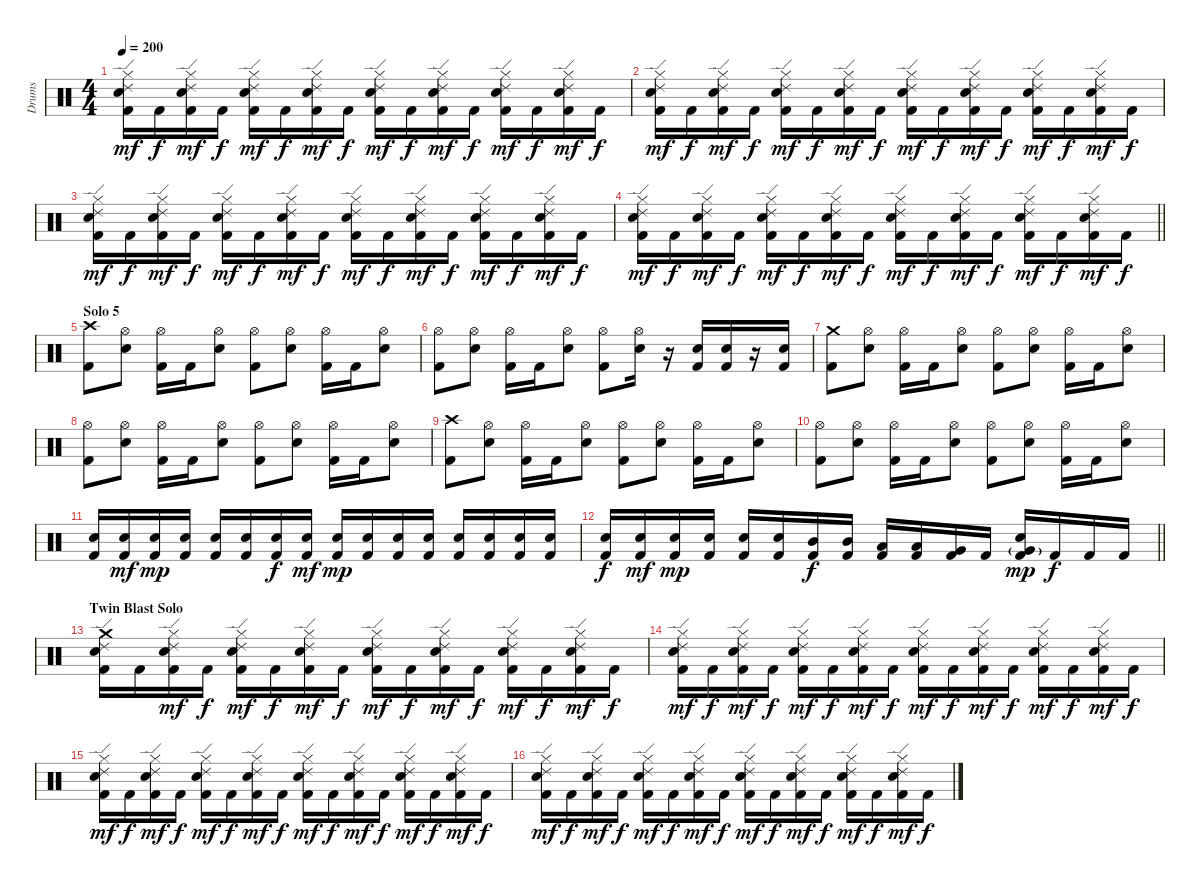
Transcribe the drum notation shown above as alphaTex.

\track ("Drums" "Drums") {instrument percussion}
\staff {score}
\articulation defaults
\ts (4 4)
\tempo 200
\clef neutral
\ks c
("Hi-Hat (closed)" "Ride (edge) 2" "Snare (hit) 2" "Kick (hit) 2").16{dy mf} "Kick (hit) 2".16{dy f} ("Hi-Hat (closed)" "Ride (edge) 2" "Snare (hit) 2" "Kick (hit) 2").16{dy mf} "Kick (hit) 2".16{dy f} ("Hi-Hat (closed)" "Ride (edge) 2" "Snare (hit) 2" "Kick (hit) 2").16{dy mf} "Kick (hit) 2".16{dy f} ("Hi-Hat (closed)" "Ride (edge) 2" "Snare (hit) 2" "Kick (hit) 2").16{dy mf} "Kick (hit) 2".16{dy f} ("Hi-Hat (closed)" "Ride (edge) 2" "Snare (hit) 2" "Kick (hit) 2").16{dy mf} "Kick (hit) 2".16{dy f} ("Hi-Hat (closed)" "Ride (edge) 2" "Snare (hit) 2" "Kick (hit) 2").16{dy mf} "Kick (hit) 2".16{dy f} ("Hi-Hat (closed)" "Ride (edge) 2" "Snare (hit) 2" "Kick (hit) 2").16{dy mf} "Kick (hit) 2".16{dy f} ("Hi-Hat (closed)" "Ride (edge) 2" "Snare (hit) 2" "Kick (hit) 2").16{dy mf} "Kick (hit) 2".16{dy f} |
("Hi-Hat (closed)" "Ride (edge) 2" "Snare (hit) 2" "Kick (hit) 2").16{dy mf} "Kick (hit) 2".16{dy f} ("Hi-Hat (closed)" "Ride (edge) 2" "Snare (hit) 2" "Kick (hit) 2").16{dy mf} "Kick (hit) 2".16{dy f} ("Hi-Hat (closed)" "Ride (edge) 2" "Snare (hit) 2" "Kick (hit) 2").16{dy mf} "Kick (hit) 2".16{dy f} ("Hi-Hat (closed)" "Ride (edge) 2" "Snare (hit) 2" "Kick (hit) 2").16{dy mf} "Kick (hit) 2".16{dy f} ("Hi-Hat (closed)" "Ride (edge) 2" "Snare (hit) 2" "Kick (hit) 2").16{dy mf} "Kick (hit) 2".16{dy f} ("Hi-Hat (closed)" "Ride (edge) 2" "Snare (hit) 2" "Kick (hit) 2").16{dy mf} "Kick (hit) 2".16{dy f} ("Hi-Hat (closed)" "Ride (edge) 2" "Snare (hit) 2" "Kick (hit) 2").16{dy mf} "Kick (hit) 2".16{dy f} ("Hi-Hat (closed)" "Ride (edge) 2" "Snare (hit) 2" "Kick (hit) 2").16{dy mf} "Kick (hit) 2".16{dy f} |
("Hi-Hat (closed)" "Ride (edge) 2" "Snare (hit) 2" "Kick (hit) 2").16{dy mf} "Kick (hit) 2".16{dy f} ("Hi-Hat (closed)" "Ride (edge) 2" "Snare (hit) 2" "Kick (hit) 2").16{dy mf} "Kick (hit) 2".16{dy f} ("Hi-Hat (closed)" "Ride (edge) 2" "Snare (hit) 2" "Kick (hit) 2").16{dy mf} "Kick (hit) 2".16{dy f} ("Hi-Hat (closed)" "Ride (edge) 2" "Snare (hit) 2" "Kick (hit) 2").16{dy mf} "Kick (hit) 2".16{dy f} ("Hi-Hat (closed)" "Ride (edge) 2" "Snare (hit) 2" "Kick (hit) 2").16{dy mf} "Kick (hit) 2".16{dy f} ("Hi-Hat (closed)" "Ride (edge) 2" "Snare (hit) 2" "Kick (hit) 2").16{dy mf} "Kick (hit) 2".16{dy f} ("Hi-Hat (closed)" "Ride (edge) 2" "Snare (hit) 2" "Kick (hit) 2").16{dy mf} "Kick (hit) 2".16{dy f} ("Hi-Hat (closed)" "Ride (edge) 2" "Snare (hit) 2" "Kick (hit) 2").16{dy mf} "Kick (hit) 2".16{dy f} |
\barLineRight lightlight
("Hi-Hat (closed)" "Ride (edge) 2" "Snare (hit) 2" "Kick (hit) 2").16{dy mf} "Kick (hit) 2".16{dy f} ("Hi-Hat (closed)" "Ride (edge) 2" "Snare (hit) 2" "Kick (hit) 2").16{dy mf} "Kick (hit) 2".16{dy f} ("Hi-Hat (closed)" "Ride (edge) 2" "Snare (hit) 2" "Kick (hit) 2").16{dy mf} "Kick (hit) 2".16{dy f} ("Hi-Hat (closed)" "Ride (edge) 2" "Snare (hit) 2" "Kick (hit) 2").16{dy mf} "Kick (hit) 2".16{dy f} ("Hi-Hat (closed)" "Ride (edge) 2" "Snare (hit) 2" "Kick (hit) 2").16{dy mf} "Kick (hit) 2".16{dy f} ("Hi-Hat (closed)" "Ride (edge) 2" "Snare (hit) 2" "Kick (hit) 2").16{dy mf} "Kick (hit) 2".16{dy f} ("Hi-Hat (closed)" "Ride (edge) 2" "Snare (hit) 2" "Kick (hit) 2").16{dy mf} "Kick (hit) 2".16{dy f} ("Hi-Hat (closed)" "Ride (edge) 2" "Snare (hit) 2" "Kick (hit) 2").16{dy mf} "Kick (hit) 2".16{dy f} |
\section ("" "Solo 5")
("Crash high (hit)" "Kick (hit) 2").8 ("Hi-Hat (open)" "Snare (hit) 2").8 ("Hi-Hat (open)" "Kick (hit) 2").16 "Kick (hit) 2".16 ("Hi-Hat (open)" "Snare (hit) 2").8 ("Hi-Hat (open)" "Kick (hit) 2").8 ("Hi-Hat (open)" "Snare (hit) 2").8 ("Hi-Hat (open)" "Kick (hit) 2").16 "Kick (hit) 2".16 ("Hi-Hat (open)" "Snare (hit) 2").8 |
("Hi-Hat (open)" "Kick (hit) 2").8 ("Hi-Hat (open)" "Snare (hit) 2").8 ("Hi-Hat (open)" "Kick (hit) 2").16 "Kick (hit) 2".16 ("Hi-Hat (open)" "Snare (hit) 2").8 ("Hi-Hat (open)" "Kick (hit) 2").8 ("Hi-Hat (open)" "Snare (hit) 2").16 r.16 ("Snare (hit) 2" "Kick (hit) 2").16 ("Snare (hit) 2" "Kick (hit) 2").16 r.16 ("Snare (hit) 2" "Kick (hit) 2").16 |
("Crash medium (hit)" "Kick (hit) 2").8 ("Hi-Hat (open)" "Snare (hit) 2").8 ("Hi-Hat (open)" "Kick (hit) 2").16 "Kick (hit) 2".16 ("Hi-Hat (open)" "Snare (hit) 2").8 ("Hi-Hat (open)" "Kick (hit) 2").8 ("Hi-Hat (open)" "Snare (hit) 2").8 ("Hi-Hat (open)" "Kick (hit) 2").16 "Kick (hit) 2".16 ("Hi-Hat (open)" "Snare (hit) 2").8 |
("Hi-Hat (open)" "Kick (hit) 2").8 ("Hi-Hat (open)" "Snare (hit) 2").8 ("Hi-Hat (open)" "Kick (hit) 2").16 "Kick (hit) 2".16 ("Hi-Hat (open)" "Snare (hit) 2").8 ("Hi-Hat (open)" "Kick (hit) 2").8 ("Hi-Hat (open)" "Snare (hit) 2").8 ("Hi-Hat (open)" "Kick (hit) 2").16 "Kick (hit) 2".16 ("Hi-Hat (open)" "Snare (hit) 2").8 |
("Crash high (hit)" "Kick (hit) 2").8 ("Hi-Hat (open)" "Snare (hit) 2").8 ("Hi-Hat (open)" "Kick (hit) 2").16 "Kick (hit) 2".16 ("Hi-Hat (open)" "Snare (hit) 2").8 ("Hi-Hat (open)" "Kick (hit) 2").8 ("Hi-Hat (open)" "Snare (hit) 2").8 ("Hi-Hat (open)" "Kick (hit) 2").16 "Kick (hit) 2".16 ("Hi-Hat (open)" "Snare (hit) 2").8 |
("Hi-Hat (open)" "Kick (hit) 2").8 ("Hi-Hat (open)" "Snare (hit) 2").8 ("Hi-Hat (open)" "Kick (hit) 2").16 "Kick (hit) 2".16 ("Hi-Hat (open)" "Snare (hit) 2").8 ("Hi-Hat (open)" "Kick (hit) 2").8 ("Hi-Hat (open)" "Snare (hit) 2").8 ("Hi-Hat (open)" "Kick (hit) 2").16 "Kick (hit) 2".16 ("Hi-Hat (open)" "Snare (hit) 2").8 |
("Snare (hit) 2" "Kick (hit) 2").16 ("Snare (hit) 2" "Kick (hit) 2").16{dy mf} ("Snare (hit) 2" "Kick (hit) 2").16{dy mp} ("Snare (hit) 2" "Kick (hit) 2").16 ("Snare (hit) 2" "Kick (hit) 2").16 ("Snare (hit) 2" "Kick (hit) 2").16 ("Snare (hit) 2" "Kick (hit) 2").16{dy f} ("Snare (hit) 2" "Kick (hit) 2").16{dy mf} ("Snare (hit) 2" "Kick (hit) 2").16{dy mp} ("Snare (hit) 2" "Kick (hit) 2").16 ("Snare (hit) 2" "Kick (hit) 2").16 ("Snare (hit) 2" "Kick (hit) 2").16 ("Snare (hit) 2" "Kick (hit) 2").16 ("Snare (hit) 2" "Kick (hit) 2").16 ("Snare (hit) 2" "Kick (hit) 2").16 ("Snare (hit) 2" "Kick (hit) 2").16 |
\barLineRight lightlight
("Snare (hit) 2" "Kick (hit) 2").16{dy f} ("Snare (hit) 2" "Kick (hit) 2").16{dy mf} ("Snare (hit) 2" "Kick (hit) 2").16{dy mp} ("Snare (hit) 2" "Kick (hit) 2").16 ("Snare (hit) 2" "Kick (hit) 2").16 ("Snare (hit) 2" "Kick (hit) 2").16 ("Mid Tom (hit)" "Kick (hit) 2").16{dy f} ("Mid Tom (hit)" "Kick (hit) 2").16 ("Low Tom (hit)" "Kick (hit) 2").16 ("Low Tom (hit)" "Kick (hit) 2").16 ("Very Low Tom (hit)" "Kick (hit) 2").16 "Kick (hit) 2".16 ("Very Low Tom (hit)"{g} "Snare (hit) 2" "Kick (hit) 2").16{dy mp} "Kick (hit) 2".16{dy f} "Kick (hit) 2".16 "Kick (hit) 2".16 |
\section ("" "Twin Blast Solo")
("Crash medium (hit)" "Ride (edge) 2" "Snare (hit) 2" "Kick (hit) 2").16 "Kick (hit) 2".16 ("Hi-Hat (closed)" "Ride (edge) 2" "Snare (hit) 2" "Kick (hit) 2").16{dy mf} "Kick (hit) 2".16{dy f} ("Hi-Hat (closed)" "Ride (edge) 2" "Snare (hit) 2" "Kick (hit) 2").16{dy mf} "Kick (hit) 2".16{dy f} ("Hi-Hat (closed)" "Ride (edge) 2" "Snare (hit) 2" "Kick (hit) 2").16{dy mf} "Kick (hit) 2".16{dy f} ("Hi-Hat (closed)" "Ride (edge) 2" "Snare (hit) 2" "Kick (hit) 2").16{dy mf} "Kick (hit) 2".16{dy f} ("Hi-Hat (closed)" "Ride (edge) 2" "Snare (hit) 2" "Kick (hit) 2").16{dy mf} "Kick (hit) 2".16{dy f} ("Hi-Hat (closed)" "Ride (edge) 2" "Snare (hit) 2" "Kick (hit) 2").16{dy mf} "Kick (hit) 2".16{dy f} ("Hi-Hat (closed)" "Ride (edge) 2" "Snare (hit) 2" "Kick (hit) 2").16{dy mf} "Kick (hit) 2".16{dy f} |
("Hi-Hat (closed)" "Ride (edge) 2" "Snare (hit) 2" "Kick (hit) 2").16{dy mf} "Kick (hit) 2".16{dy f} ("Hi-Hat (closed)" "Ride (edge) 2" "Snare (hit) 2" "Kick (hit) 2").16{dy mf} "Kick (hit) 2".16{dy f} ("Hi-Hat (closed)" "Ride (edge) 2" "Snare (hit) 2" "Kick (hit) 2").16{dy mf} "Kick (hit) 2".16{dy f} ("Hi-Hat (closed)" "Ride (edge) 2" "Snare (hit) 2" "Kick (hit) 2").16{dy mf} "Kick (hit) 2".16{dy f} ("Hi-Hat (closed)" "Ride (edge) 2" "Snare (hit) 2" "Kick (hit) 2").16{dy mf} "Kick (hit) 2".16{dy f} ("Hi-Hat (closed)" "Ride (edge) 2" "Snare (hit) 2" "Kick (hit) 2").16{dy mf} "Kick (hit) 2".16{dy f} ("Hi-Hat (closed)" "Ride (edge) 2" "Snare (hit) 2" "Kick (hit) 2").16{dy mf} "Kick (hit) 2".16{dy f} ("Hi-Hat (closed)" "Ride (edge) 2" "Snare (hit) 2" "Kick (hit) 2").16{dy mf} "Kick (hit) 2".16{dy f} |
("Hi-Hat (closed)" "Ride (edge) 2" "Snare (hit) 2" "Kick (hit) 2").16{dy mf} "Kick (hit) 2".16{dy f} ("Hi-Hat (closed)" "Ride (edge) 2" "Snare (hit) 2" "Kick (hit) 2").16{dy mf} "Kick (hit) 2".16{dy f} ("Hi-Hat (closed)" "Ride (edge) 2" "Snare (hit) 2" "Kick (hit) 2").16{dy mf} "Kick (hit) 2".16{dy f} ("Hi-Hat (closed)" "Ride (edge) 2" "Snare (hit) 2" "Kick (hit) 2").16{dy mf} "Kick (hit) 2".16{dy f} ("Hi-Hat (closed)" "Ride (edge) 2" "Snare (hit) 2" "Kick (hit) 2").16{dy mf} "Kick (hit) 2".16{dy f} ("Hi-Hat (closed)" "Ride (edge) 2" "Snare (hit) 2" "Kick (hit) 2").16{dy mf} "Kick (hit) 2".16{dy f} ("Hi-Hat (closed)" "Ride (edge) 2" "Snare (hit) 2" "Kick (hit) 2").16{dy mf} "Kick (hit) 2".16{dy f} ("Hi-Hat (closed)" "Ride (edge) 2" "Snare (hit) 2" "Kick (hit) 2").16{dy mf} "Kick (hit) 2".16{dy f} |
("Hi-Hat (closed)" "Ride (edge) 2" "Snare (hit) 2" "Kick (hit) 2").16{dy mf} "Kick (hit) 2".16{dy f} ("Hi-Hat (closed)" "Ride (edge) 2" "Snare (hit) 2" "Kick (hit) 2").16{dy mf} "Kick (hit) 2".16{dy f} ("Hi-Hat (closed)" "Ride (edge) 2" "Snare (hit) 2" "Kick (hit) 2").16{dy mf} "Kick (hit) 2".16{dy f} ("Hi-Hat (closed)" "Ride (edge) 2" "Snare (hit) 2" "Kick (hit) 2").16{dy mf} "Kick (hit) 2".16{dy f} ("Hi-Hat (closed)" "Ride (edge) 2" "Snare (hit) 2" "Kick (hit) 2").16{dy mf} "Kick (hit) 2".16{dy f} ("Hi-Hat (closed)" "Ride (edge) 2" "Snare (hit) 2" "Kick (hit) 2").16{dy mf} "Kick (hit) 2".16{dy f} ("Hi-Hat (closed)" "Ride (edge) 2" "Snare (hit) 2" "Kick (hit) 2").16{dy mf} "Kick (hit) 2".16{dy f} ("Hi-Hat (closed)" "Ride (edge) 2" "Snare (hit) 2" "Kick (hit) 2").16{dy mf} "Kick (hit) 2".16{dy f}
